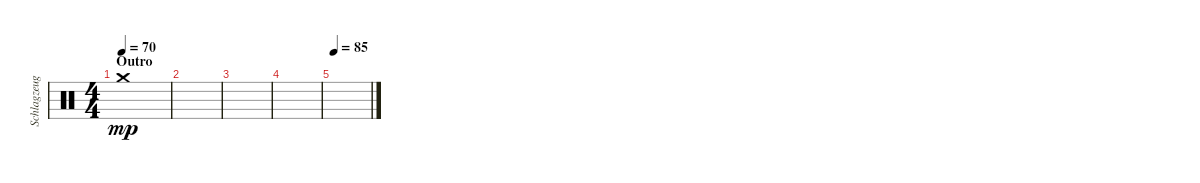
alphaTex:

\track ("Schlagzeug" "Schlagzeug") {instrument percussion}
\staff {score}
\articulation defaults
\ts (4 4)
\section ("" "Outro")
\tempo 70
\clef neutral
\ks c "Crash medium (hit)".1{dy mp}
|
|
|
|
\tempo 85
